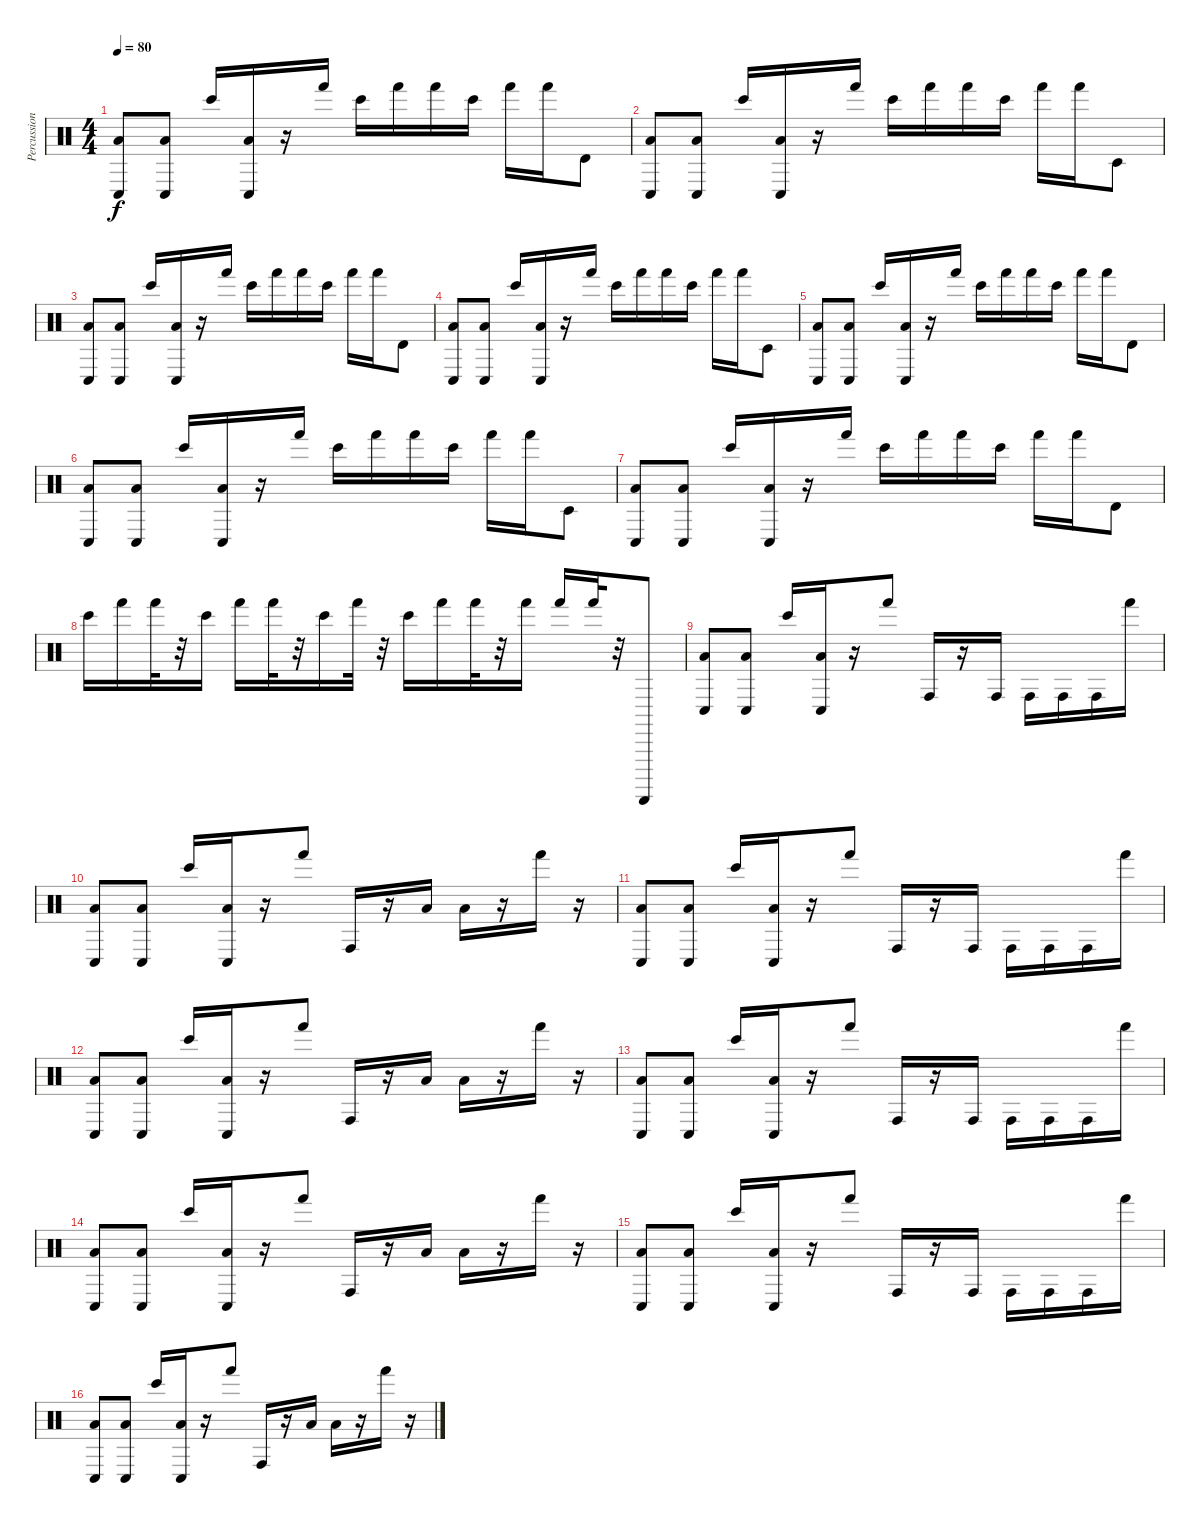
\track ("Percussion" "Percussion") {instrument percussion}
\staff {score}
\articulation defaults
\ts (4 4)
\tempo 80
\clef neutral
\ks c
("Low Tom (hit)" "Conga low (hit)").8{dy f} ("Low Tom (hit)" "Conga low (hit)").8 "Bongo High (hit)".16 ("Low Tom (hit)" "Conga low (hit)").16 r.16 "Hand (hit)".16 "Bongo High (hit)".16 "Hand (hit)".16 "Hand (hit)".16 "Bongo High (hit)".16 "Hand (hit)".16 "Hand (hit)".16 "Timbale high (hit)".8 |
("Low Tom (hit)" "Conga low (hit)").8 ("Low Tom (hit)" "Conga low (hit)").8 "Bongo High (hit)".16 ("Low Tom (hit)" "Conga low (hit)").16 r.16 "Hand (hit)".16 "Bongo High (hit)".16 "Hand (hit)".16 "Hand (hit)".16 "Bongo High (hit)".16 "Hand (hit)".16 "Hand (hit)".16 "Timbale low (hit)".8 |
("Low Tom (hit)" "Conga low (hit)").8 ("Low Tom (hit)" "Conga low (hit)").8 "Bongo High (hit)".16 ("Low Tom (hit)" "Conga low (hit)").16 r.16 "Hand (hit)".16 "Bongo High (hit)".16 "Hand (hit)".16 "Hand (hit)".16 "Bongo High (hit)".16 "Hand (hit)".16 "Hand (hit)".16 "Timbale high (hit)".8 |
("Low Tom (hit)" "Conga low (hit)").8 ("Low Tom (hit)" "Conga low (hit)").8 "Bongo High (hit)".16 ("Low Tom (hit)" "Conga low (hit)").16 r.16 "Hand (hit)".16 "Bongo High (hit)".16 "Hand (hit)".16 "Hand (hit)".16 "Bongo High (hit)".16 "Hand (hit)".16 "Hand (hit)".16 "Timbale low (hit)".8 |
("Low Tom (hit)" "Conga low (hit)").8 ("Low Tom (hit)" "Conga low (hit)").8 "Bongo High (hit)".16 ("Low Tom (hit)" "Conga low (hit)").16 r.16 "Hand (hit)".16 "Bongo High (hit)".16 "Hand (hit)".16 "Hand (hit)".16 "Bongo High (hit)".16 "Hand (hit)".16 "Hand (hit)".16 "Timbale high (hit)".8 |
("Low Tom (hit)" "Conga low (hit)").8 ("Low Tom (hit)" "Conga low (hit)").8 "Bongo High (hit)".16 ("Low Tom (hit)" "Conga low (hit)").16 r.16 "Hand (hit)".16 "Bongo High (hit)".16 "Hand (hit)".16 "Hand (hit)".16 "Bongo High (hit)".16 "Hand (hit)".16 "Hand (hit)".16 "Timbale low (hit)".8 |
("Low Tom (hit)" "Conga low (hit)").8 ("Low Tom (hit)" "Conga low (hit)").8 "Bongo High (hit)".16 ("Low Tom (hit)" "Conga low (hit)").16 r.16 "Hand (hit)".16 "Bongo High (hit)".16 "Hand (hit)".16 "Hand (hit)".16 "Bongo High (hit)".16 "Hand (hit)".16 "Hand (hit)".16 "Timbale high (hit)".8 |
"Bongo High (hit)".16 "Hand (hit)".16 "Hand (hit)".32 r.32 "Bongo High (hit)".16 "Hand (hit)".16 "Hand (hit)".32 r.32 "Bongo High (hit)".16 "Hand (hit)".32 r.32 "Bongo High (hit)".16 "Hand (hit)".16 "Hand (hit)".32 r.32 "Hand (hit)".16 "Hand (hit)".16 "Hand (hit)".32 r.32 "Guiro (scrap-return)".8 |
("Low Tom (hit)" "Conga low (hit)").8 ("Low Tom (hit)" "Conga low (hit)").8 "Bongo High (hit)".16 ("Low Tom (hit)" "Conga low (hit)").16 r.16 "Hand (hit)".8 "Conga high (hit)".16 r.16 "Conga high (hit)".16 "Conga high (hit)".16 "Conga high (hit)".16 "Conga high (hit)".16 "Hand (hit)".16 |
("Low Tom (hit)" "Conga low (hit)").8 ("Low Tom (hit)" "Conga low (hit)").8 "Bongo High (hit)".16 ("Low Tom (hit)" "Conga low (hit)").16 r.16 "Hand (hit)".8 "Conga high (hit)".16 r.16 "Low Tom (hit)".16 "Low Tom (hit)".16 r.16 "Hand (hit)".16 r.16 |
("Low Tom (hit)" "Conga low (hit)").8 ("Low Tom (hit)" "Conga low (hit)").8 "Bongo High (hit)".16 ("Low Tom (hit)" "Conga low (hit)").16 r.16 "Hand (hit)".8 "Conga high (hit)".16 r.16 "Conga high (hit)".16 "Conga high (hit)".16 "Conga high (hit)".16 "Conga high (hit)".16 "Hand (hit)".16 |
("Low Tom (hit)" "Conga low (hit)").8 ("Low Tom (hit)" "Conga low (hit)").8 "Bongo High (hit)".16 ("Low Tom (hit)" "Conga low (hit)").16 r.16 "Hand (hit)".8 "Conga high (hit)".16 r.16 "Low Tom (hit)".16 "Low Tom (hit)".16 r.16 "Hand (hit)".16 r.16 |
("Low Tom (hit)" "Conga low (hit)").8 ("Low Tom (hit)" "Conga low (hit)").8 "Bongo High (hit)".16 ("Low Tom (hit)" "Conga low (hit)").16 r.16 "Hand (hit)".8 "Conga high (hit)".16 r.16 "Conga high (hit)".16 "Conga high (hit)".16 "Conga high (hit)".16 "Conga high (hit)".16 "Hand (hit)".16 |
("Low Tom (hit)" "Conga low (hit)").8 ("Low Tom (hit)" "Conga low (hit)").8 "Bongo High (hit)".16 ("Low Tom (hit)" "Conga low (hit)").16 r.16 "Hand (hit)".8 "Conga high (hit)".16 r.16 "Low Tom (hit)".16 "Low Tom (hit)".16 r.16 "Hand (hit)".16 r.16 |
("Low Tom (hit)" "Conga low (hit)").8 ("Low Tom (hit)" "Conga low (hit)").8 "Bongo High (hit)".16 ("Low Tom (hit)" "Conga low (hit)").16 r.16 "Hand (hit)".8 "Conga high (hit)".16 r.16 "Conga high (hit)".16 "Conga high (hit)".16 "Conga high (hit)".16 "Conga high (hit)".16 "Hand (hit)".16 |
("Low Tom (hit)" "Conga low (hit)").8 ("Low Tom (hit)" "Conga low (hit)").8 "Bongo High (hit)".16 ("Low Tom (hit)" "Conga low (hit)").16 r.16 "Hand (hit)".8 "Conga high (hit)".16 r.16 "Low Tom (hit)".16 "Low Tom (hit)".16 r.16 "Hand (hit)".16 r.16
